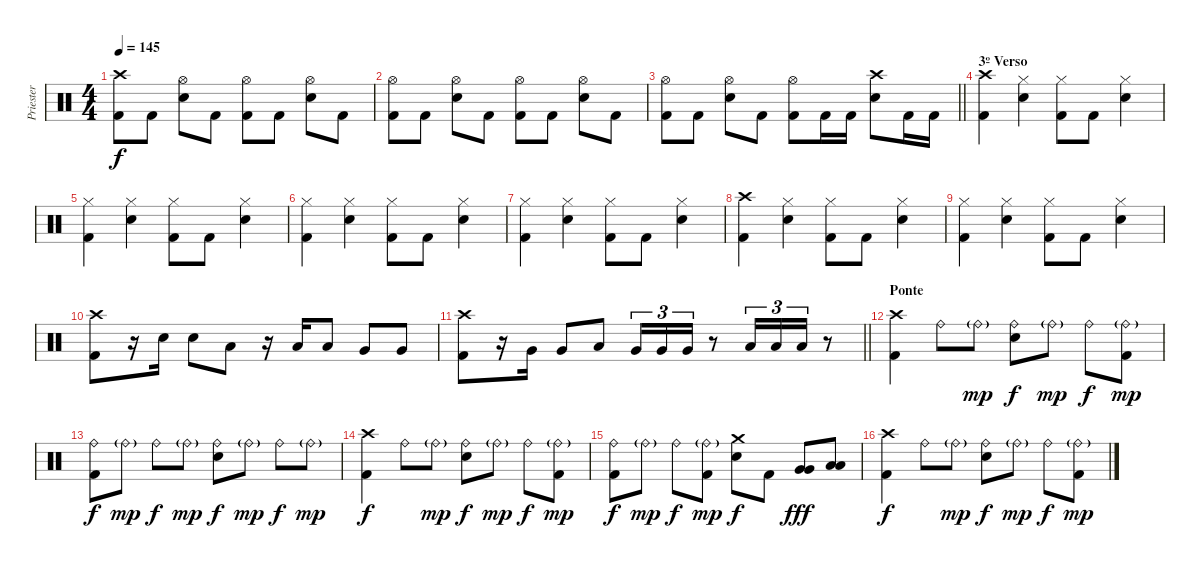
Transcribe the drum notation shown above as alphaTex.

\track ("Priester" "Priester") {instrument percussion}
\staff {score}
\articulation defaults
\ts (4 4)
\tempo 145
\clef neutral
\ks c
("Crash high (hit)" "Kick (hit) 2").8{dy f} "Kick (hit) 2".8 ("Hi-Hat (open)" "Electric Snare (hit)").8 "Kick (hit) 2".8 ("Hi-Hat (open)" "Kick (hit) 2").8 "Kick (hit) 2".8 ("Hi-Hat (open)" "Electric Snare (hit)").8 "Kick (hit) 2".8 |
("Hi-Hat (open)" "Kick (hit) 2").8 "Kick (hit) 2".8 ("Hi-Hat (open)" "Electric Snare (hit)").8 "Kick (hit) 2".8 ("Hi-Hat (open)" "Kick (hit) 2").8 "Kick (hit) 2".8 ("Hi-Hat (open)" "Electric Snare (hit)").8 "Kick (hit) 2".8 |
\barLineRight lightlight
("Hi-Hat (open)" "Kick (hit) 2").8 "Kick (hit) 2".8 ("Hi-Hat (open)" "Electric Snare (hit)").8 "Kick (hit) 2".8 ("Hi-Hat (open)" "Kick (hit) 2").8 "Kick (hit) 2".16 "Kick (hit) 2".16 ("Crash high (hit)" "Electric Snare (hit)").8 "Kick (hit) 2".16 "Kick (hit) 2".16 |
\section ("" "3º Verso")
("Crash high (hit)" "Kick (hit) 2").4 ("Hi-Hat (closed)" "Electric Snare (hit)").4 ("Hi-Hat (closed)" "Kick (hit) 2").8 "Kick (hit) 2".8 ("Hi-Hat (closed)" "Electric Snare (hit)").4 |
("Hi-Hat (closed)" "Kick (hit) 2").4 ("Hi-Hat (closed)" "Electric Snare (hit)").4 ("Hi-Hat (closed)" "Kick (hit) 2").8 "Kick (hit) 2".8 ("Hi-Hat (closed)" "Electric Snare (hit)").4 |
("Hi-Hat (closed)" "Kick (hit) 2").4 ("Hi-Hat (closed)" "Electric Snare (hit)").4 ("Hi-Hat (closed)" "Kick (hit) 2").8 "Kick (hit) 2".8 ("Hi-Hat (closed)" "Electric Snare (hit)").4 |
("Hi-Hat (closed)" "Kick (hit) 2").4 ("Hi-Hat (closed)" "Electric Snare (hit)").4 ("Hi-Hat (closed)" "Kick (hit) 2").8 "Kick (hit) 2".8 ("Hi-Hat (closed)" "Electric Snare (hit)").4 |
("Crash high (hit)" "Kick (hit) 2").4 ("Hi-Hat (closed)" "Electric Snare (hit)").4 ("Hi-Hat (closed)" "Kick (hit) 2").8 "Kick (hit) 2".8 ("Hi-Hat (closed)" "Electric Snare (hit)").4 |
("Hi-Hat (closed)" "Kick (hit) 2").4 ("Hi-Hat (closed)" "Electric Snare (hit)").4 ("Hi-Hat (closed)" "Kick (hit) 2").8 "Kick (hit) 2".8 ("Hi-Hat (closed)" "Electric Snare (hit)").4 |
("Crash high (hit)" "Kick (hit) 2").8 r.16 "Electric Snare (hit)".16 "Electric Snare (hit)".8 "Low Tom (hit)".8 r.16 "Low Tom (hit)".16 "Low Tom (hit)".8 "Very Low Tom (hit)".8 "Very Low Tom (hit)".8 |
\barLineRight lightlight
("Crash high (hit)" "Kick (hit) 2").8 r.16 "Very Low Tom (hit)".16 "Very Low Tom (hit)".8 "Low Floor Tom (hit)".8 "Very Low Tom (hit)".16{tu (3 2)} "Very Low Tom (hit)".16{tu (3 2)} "Very Low Tom (hit)".16{tu (3 2)} r.8 "Low Floor Tom (hit)".16{tu (3 2)} "Low Floor Tom (hit)".16{tu (3 2)} "Low Floor Tom (hit)".16{tu (3 2)} r.8 |
\section ("" "Ponte")
("Crash high (hit)" "Kick (hit) 2").4 "Ride (bell)".8 "Ride (bell)"{g}.8{dy mp} ("Ride (bell)" "Electric Snare (hit)").8{dy f} "Ride (bell)"{g}.8{dy mp} "Ride (bell)".8{dy f} ("Ride (bell)"{g} "Kick (hit) 2").8{dy mp} |
("Ride (bell)" "Kick (hit) 2").8{dy f} "Ride (bell)"{g}.8{dy mp} "Ride (bell)".8{dy f} "Ride (bell)"{g}.8{dy mp} ("Ride (bell)" "Electric Snare (hit)").8{dy f} "Ride (bell)"{g}.8{dy mp} "Ride (bell)".8{dy f} "Ride (bell)"{g}.8{dy mp} |
("Crash high (hit)" "Kick (hit) 2").4{dy f} "Ride (bell)".8 "Ride (bell)"{g}.8{dy mp} ("Ride (bell)" "Electric Snare (hit)").8{dy f} "Ride (bell)"{g}.8{dy mp} "Ride (bell)".8{dy f} ("Ride (bell)"{g} "Kick (hit) 2").8{dy mp} |
("Ride (bell)" "Kick (hit) 2").8{dy f} "Ride (bell)"{g}.8{dy mp} "Ride (bell)".8{dy f} ("Ride (bell)"{g} "Kick (hit) 2").8{dy mp} ("Crash medium (hit)" "Electric Snare (hit)").8{dy f} "Kick (hit) 2".8 ("Very Low Tom (hit)" "Very Low Tom (hit)").8{dy fff} ("Low Floor Tom (hit)" "Low Floor Tom (hit)").8 |
("Crash high (hit)" "Kick (hit) 2").4{dy f} "Ride (bell)".8 "Ride (bell)"{g}.8{dy mp} ("Ride (bell)" "Electric Snare (hit)").8{dy f} "Ride (bell)"{g}.8{dy mp} "Ride (bell)".8{dy f} ("Ride (bell)"{g} "Kick (hit) 2").8{dy mp}
